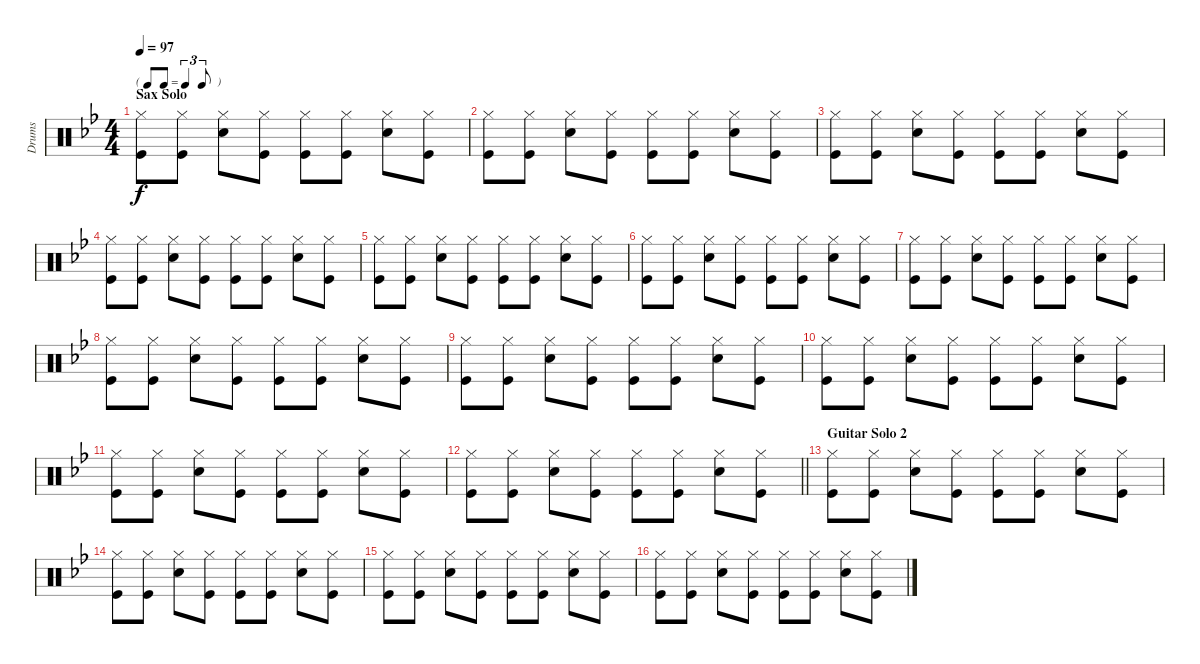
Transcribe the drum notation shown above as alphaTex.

\track ("Drums" "Drums") {instrument percussion}
\staff {score}
\articulation defaults
\ts (4 4)
\tf triplet8th
\section ("" "Sax Solo")
\tempo 97
\clef neutral
\ks bb
("Kick (hit)" "Hi-Hat (closed)").8{dy f} ("Kick (hit)" "Hi-Hat (closed)").8 ("Snare (hit) 2" "Hi-Hat (closed)").8 ("Kick (hit)" "Hi-Hat (closed)").8 ("Kick (hit)" "Hi-Hat (closed)").8 ("Kick (hit)" "Hi-Hat (closed)").8 ("Snare (hit) 2" "Hi-Hat (closed)").8 ("Kick (hit)" "Hi-Hat (closed)").8 |
("Kick (hit)" "Hi-Hat (closed)").8 ("Kick (hit)" "Hi-Hat (closed)").8 ("Snare (hit) 2" "Hi-Hat (closed)").8 ("Kick (hit)" "Hi-Hat (closed)").8 ("Kick (hit)" "Hi-Hat (closed)").8 ("Kick (hit)" "Hi-Hat (closed)").8 ("Snare (hit) 2" "Hi-Hat (closed)").8 ("Kick (hit)" "Hi-Hat (closed)").8 |
("Kick (hit)" "Hi-Hat (closed)").8 ("Kick (hit)" "Hi-Hat (closed)").8 ("Snare (hit) 2" "Hi-Hat (closed)").8 ("Kick (hit)" "Hi-Hat (closed)").8 ("Kick (hit)" "Hi-Hat (closed)").8 ("Kick (hit)" "Hi-Hat (closed)").8 ("Snare (hit) 2" "Hi-Hat (closed)").8 ("Kick (hit)" "Hi-Hat (closed)").8 |
("Kick (hit)" "Hi-Hat (closed)").8 ("Kick (hit)" "Hi-Hat (closed)").8 ("Snare (hit) 2" "Hi-Hat (closed)").8 ("Kick (hit)" "Hi-Hat (closed)").8 ("Kick (hit)" "Hi-Hat (closed)").8 ("Kick (hit)" "Hi-Hat (closed)").8 ("Snare (hit) 2" "Hi-Hat (closed)").8 ("Kick (hit)" "Hi-Hat (closed)").8 |
("Kick (hit)" "Hi-Hat (closed)").8 ("Kick (hit)" "Hi-Hat (closed)").8 ("Snare (hit) 2" "Hi-Hat (closed)").8 ("Kick (hit)" "Hi-Hat (closed)").8 ("Kick (hit)" "Hi-Hat (closed)").8 ("Kick (hit)" "Hi-Hat (closed)").8 ("Snare (hit) 2" "Hi-Hat (closed)").8 ("Kick (hit)" "Hi-Hat (closed)").8 |
("Kick (hit)" "Hi-Hat (closed)").8 ("Kick (hit)" "Hi-Hat (closed)").8 ("Snare (hit) 2" "Hi-Hat (closed)").8 ("Kick (hit)" "Hi-Hat (closed)").8 ("Kick (hit)" "Hi-Hat (closed)").8 ("Kick (hit)" "Hi-Hat (closed)").8 ("Snare (hit) 2" "Hi-Hat (closed)").8 ("Kick (hit)" "Hi-Hat (closed)").8 |
("Kick (hit)" "Hi-Hat (closed)").8 ("Kick (hit)" "Hi-Hat (closed)").8 ("Snare (hit) 2" "Hi-Hat (closed)").8 ("Kick (hit)" "Hi-Hat (closed)").8 ("Kick (hit)" "Hi-Hat (closed)").8 ("Kick (hit)" "Hi-Hat (closed)").8 ("Snare (hit) 2" "Hi-Hat (closed)").8 ("Kick (hit)" "Hi-Hat (closed)").8 |
("Kick (hit)" "Hi-Hat (closed)").8 ("Kick (hit)" "Hi-Hat (closed)").8 ("Snare (hit) 2" "Hi-Hat (closed)").8 ("Kick (hit)" "Hi-Hat (closed)").8 ("Kick (hit)" "Hi-Hat (closed)").8 ("Kick (hit)" "Hi-Hat (closed)").8 ("Snare (hit) 2" "Hi-Hat (closed)").8 ("Kick (hit)" "Hi-Hat (closed)").8 |
("Kick (hit)" "Hi-Hat (closed)").8 ("Kick (hit)" "Hi-Hat (closed)").8 ("Snare (hit) 2" "Hi-Hat (closed)").8 ("Kick (hit)" "Hi-Hat (closed)").8 ("Kick (hit)" "Hi-Hat (closed)").8 ("Kick (hit)" "Hi-Hat (closed)").8 ("Snare (hit) 2" "Hi-Hat (closed)").8 ("Kick (hit)" "Hi-Hat (closed)").8 |
("Kick (hit)" "Hi-Hat (closed)").8 ("Kick (hit)" "Hi-Hat (closed)").8 ("Snare (hit) 2" "Hi-Hat (closed)").8 ("Kick (hit)" "Hi-Hat (closed)").8 ("Kick (hit)" "Hi-Hat (closed)").8 ("Kick (hit)" "Hi-Hat (closed)").8 ("Snare (hit) 2" "Hi-Hat (closed)").8 ("Kick (hit)" "Hi-Hat (closed)").8 |
("Kick (hit)" "Hi-Hat (closed)").8 ("Kick (hit)" "Hi-Hat (closed)").8 ("Snare (hit) 2" "Hi-Hat (closed)").8 ("Kick (hit)" "Hi-Hat (closed)").8 ("Kick (hit)" "Hi-Hat (closed)").8 ("Kick (hit)" "Hi-Hat (closed)").8 ("Snare (hit) 2" "Hi-Hat (closed)").8 ("Kick (hit)" "Hi-Hat (closed)").8 |
\barLineRight lightlight
("Kick (hit)" "Hi-Hat (closed)").8 ("Kick (hit)" "Hi-Hat (closed)").8 ("Snare (hit) 2" "Hi-Hat (closed)").8 ("Kick (hit)" "Hi-Hat (closed)").8 ("Kick (hit)" "Hi-Hat (closed)").8 ("Kick (hit)" "Hi-Hat (closed)").8 ("Snare (hit) 2" "Hi-Hat (closed)").8 ("Kick (hit)" "Hi-Hat (closed)").8 |
\section ("" "Guitar Solo 2")
("Kick (hit)" "Hi-Hat (closed)").8{volume 9} ("Kick (hit)" "Hi-Hat (closed)").8 ("Snare (hit) 2" "Hi-Hat (closed)").8 ("Kick (hit)" "Hi-Hat (closed)").8 ("Kick (hit)" "Hi-Hat (closed)").8 ("Kick (hit)" "Hi-Hat (closed)").8 ("Snare (hit) 2" "Hi-Hat (closed)").8 ("Kick (hit)" "Hi-Hat (closed)").8 |
("Kick (hit)" "Hi-Hat (closed)").8 ("Kick (hit)" "Hi-Hat (closed)").8 ("Snare (hit) 2" "Hi-Hat (closed)").8 ("Kick (hit)" "Hi-Hat (closed)").8 ("Kick (hit)" "Hi-Hat (closed)").8 ("Kick (hit)" "Hi-Hat (closed)").8 ("Snare (hit) 2" "Hi-Hat (closed)").8 ("Kick (hit)" "Hi-Hat (closed)").8 |
("Kick (hit)" "Hi-Hat (closed)").8 ("Kick (hit)" "Hi-Hat (closed)").8 ("Snare (hit) 2" "Hi-Hat (closed)").8 ("Kick (hit)" "Hi-Hat (closed)").8 ("Kick (hit)" "Hi-Hat (closed)").8 ("Kick (hit)" "Hi-Hat (closed)").8 ("Snare (hit) 2" "Hi-Hat (closed)").8 ("Kick (hit)" "Hi-Hat (closed)").8 |
("Kick (hit)" "Hi-Hat (closed)").8 ("Kick (hit)" "Hi-Hat (closed)").8 ("Snare (hit) 2" "Hi-Hat (closed)").8 ("Kick (hit)" "Hi-Hat (closed)").8 ("Kick (hit)" "Hi-Hat (closed)").8 ("Kick (hit)" "Hi-Hat (closed)").8 ("Snare (hit) 2" "Hi-Hat (closed)").8 ("Kick (hit)" "Hi-Hat (closed)").8
